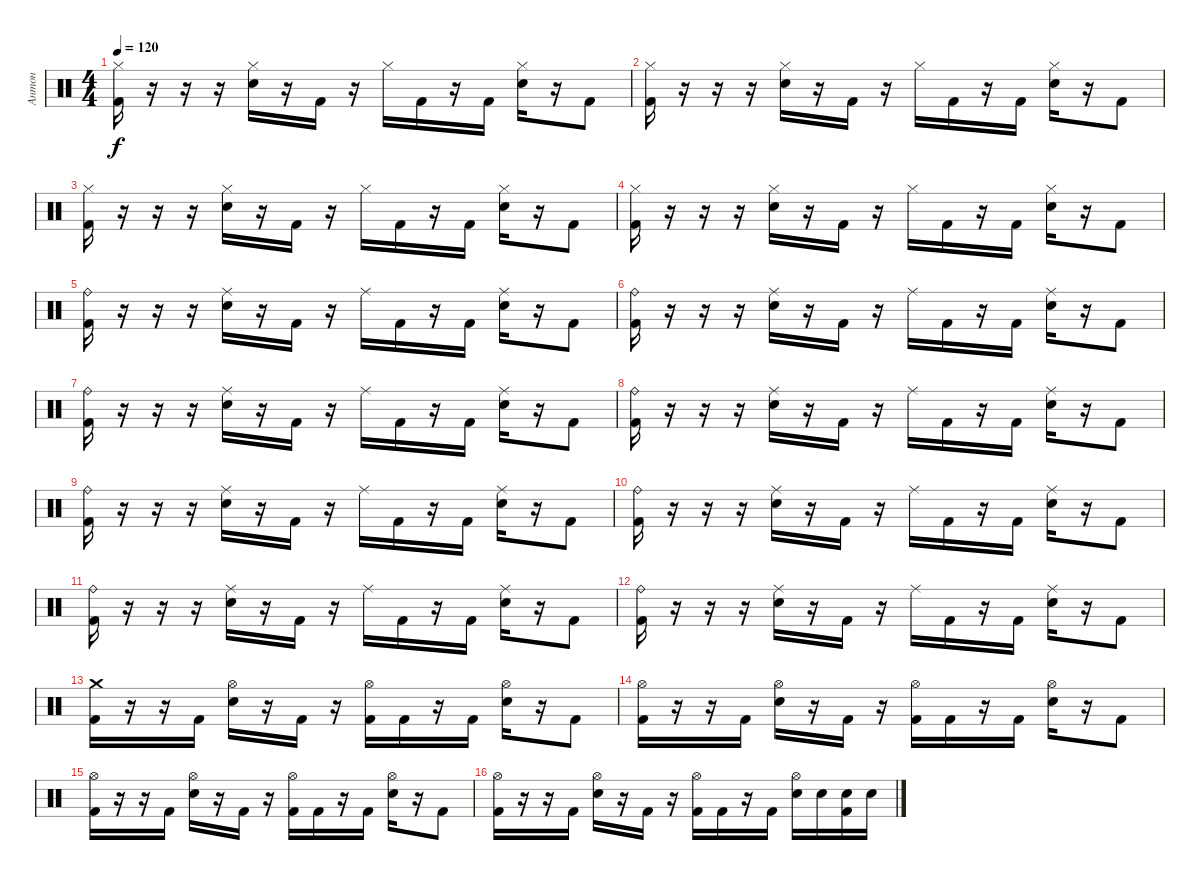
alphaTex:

\track ("Антон" "Антон") {instrument percussion}
\staff {score}
\articulation defaults
\ts (4 4)
\tempo 120
\clef neutral
\ks c
("Hi-Hat (closed)" "Kick (hit) 2").16{dy f} r.16 r.16 r.16 ("Hi-Hat (closed)" "Electric Snare (hit)").16 r.16 "Kick (hit) 2".16 r.16 "Hi-Hat (closed)".16 "Kick (hit) 2".16 r.16 "Kick (hit) 2".16 ("Hi-Hat (closed)" "Electric Snare (hit)").16 r.16 "Kick (hit) 2".8 |
("Hi-Hat (closed)" "Kick (hit) 2").16 r.16 r.16 r.16 ("Hi-Hat (closed)" "Electric Snare (hit)").16 r.16 "Kick (hit) 2".16 r.16 "Hi-Hat (closed)".16 "Kick (hit) 2".16 r.16 "Kick (hit) 2".16 ("Hi-Hat (closed)" "Electric Snare (hit)").16 r.16 "Kick (hit) 2".8 |
("Hi-Hat (closed)" "Kick (hit) 2").16 r.16 r.16 r.16 ("Hi-Hat (closed)" "Electric Snare (hit)").16 r.16 "Kick (hit) 2".16 r.16 "Hi-Hat (closed)".16 "Kick (hit) 2".16 r.16 "Kick (hit) 2".16 ("Hi-Hat (closed)" "Electric Snare (hit)").16 r.16 "Kick (hit) 2".8 |
("Hi-Hat (closed)" "Kick (hit) 2").16 r.16 r.16 r.16 ("Hi-Hat (closed)" "Electric Snare (hit)").16 r.16 "Kick (hit) 2".16 r.16 "Hi-Hat (closed)".16 "Kick (hit) 2".16 r.16 "Kick (hit) 2".16 ("Hi-Hat (closed)" "Electric Snare (hit)").16 r.16 "Kick (hit) 2".8 |
("Ride (bell)" "Kick (hit) 2").16 r.16 r.16 r.16 ("Ride (middle)" "Electric Snare (hit)").16 r.16 "Kick (hit) 2".16 r.16 "Ride (middle)".16 "Kick (hit) 2".16 r.16 "Kick (hit) 2".16 ("Ride (middle)" "Electric Snare (hit)").16 r.16 "Kick (hit) 2".8 |
("Ride (bell)" "Kick (hit) 2").16 r.16 r.16 r.16 ("Ride (middle)" "Electric Snare (hit)").16 r.16 "Kick (hit) 2".16 r.16 "Ride (middle)".16 "Kick (hit) 2".16 r.16 "Kick (hit) 2".16 ("Ride (middle)" "Electric Snare (hit)").16 r.16 "Kick (hit) 2".8 |
("Ride (bell)" "Kick (hit) 2").16 r.16 r.16 r.16 ("Ride (middle)" "Electric Snare (hit)").16 r.16 "Kick (hit) 2".16 r.16 "Ride (middle)".16 "Kick (hit) 2".16 r.16 "Kick (hit) 2".16 ("Ride (middle)" "Electric Snare (hit)").16 r.16 "Kick (hit) 2".8 |
("Ride (bell)" "Kick (hit) 2").16 r.16 r.16 r.16 ("Ride (middle)" "Electric Snare (hit)").16 r.16 "Kick (hit) 2".16 r.16 "Ride (middle)".16 "Kick (hit) 2".16 r.16 "Kick (hit) 2".16 ("Ride (middle)" "Electric Snare (hit)").16 r.16 "Kick (hit) 2".8 |
("Ride (bell)" "Kick (hit) 2").16 r.16 r.16 r.16 ("Ride (middle)" "Electric Snare (hit)").16 r.16 "Kick (hit) 2".16 r.16 "Ride (middle)".16 "Kick (hit) 2".16 r.16 "Kick (hit) 2".16 ("Ride (middle)" "Electric Snare (hit)").16 r.16 "Kick (hit) 2".8 |
("Ride (bell)" "Kick (hit) 2").16 r.16 r.16 r.16 ("Ride (middle)" "Electric Snare (hit)").16 r.16 "Kick (hit) 2".16 r.16 "Ride (middle)".16 "Kick (hit) 2".16 r.16 "Kick (hit) 2".16 ("Ride (middle)" "Electric Snare (hit)").16 r.16 "Kick (hit) 2".8 |
("Ride (bell)" "Kick (hit) 2").16 r.16 r.16 r.16 ("Ride (middle)" "Electric Snare (hit)").16 r.16 "Kick (hit) 2".16 r.16 "Ride (middle)".16 "Kick (hit) 2".16 r.16 "Kick (hit) 2".16 ("Ride (middle)" "Electric Snare (hit)").16 r.16 "Kick (hit) 2".8 |
("Ride (bell)" "Kick (hit) 2").16 r.16 r.16 r.16 ("Ride (middle)" "Electric Snare (hit)").16 r.16 "Kick (hit) 2".16 r.16 "Ride (middle)".16 "Kick (hit) 2".16 r.16 "Kick (hit) 2".16 ("Ride (middle)" "Electric Snare (hit)").16 r.16 "Kick (hit) 2".8 |
("Crash medium (hit)" "Kick (hit) 2").16 r.16 r.16 "Kick (hit) 2".16 ("Hi-Hat (open)" "Electric Snare (hit)").16 r.16 "Kick (hit) 2".16 r.16 ("Hi-Hat (open)" "Kick (hit) 2").16 "Kick (hit) 2".16 r.16 "Kick (hit) 2".16 ("Hi-Hat (open)" "Electric Snare (hit)").16 r.16 "Kick (hit) 2".8 |
("Hi-Hat (open)" "Kick (hit) 2").16 r.16 r.16 "Kick (hit) 2".16 ("Hi-Hat (open)" "Electric Snare (hit)").16 r.16 "Kick (hit) 2".16 r.16 ("Hi-Hat (open)" "Kick (hit) 2").16 "Kick (hit) 2".16 r.16 "Kick (hit) 2".16 ("Hi-Hat (open)" "Electric Snare (hit)").16 r.16 "Kick (hit) 2".8 |
("Hi-Hat (open)" "Kick (hit) 2").16 r.16 r.16 "Kick (hit) 2".16 ("Hi-Hat (open)" "Electric Snare (hit)").16 r.16 "Kick (hit) 2".16 r.16 ("Hi-Hat (open)" "Kick (hit) 2").16 "Kick (hit) 2".16 r.16 "Kick (hit) 2".16 ("Hi-Hat (open)" "Electric Snare (hit)").16 r.16 "Kick (hit) 2".8 |
("Hi-Hat (open)" "Kick (hit) 2").16 r.16 r.16 "Kick (hit) 2".16 ("Hi-Hat (open)" "Electric Snare (hit)").16 r.16 "Kick (hit) 2".16 r.16 ("Hi-Hat (open)" "Kick (hit) 2").16 "Kick (hit) 2".16 r.16 "Kick (hit) 2".16 ("Hi-Hat (open)" "Electric Snare (hit)").16 "Electric Snare (hit)".16 ("Electric Snare (hit)" "Kick (hit) 2").16 "Electric Snare (hit)".16
